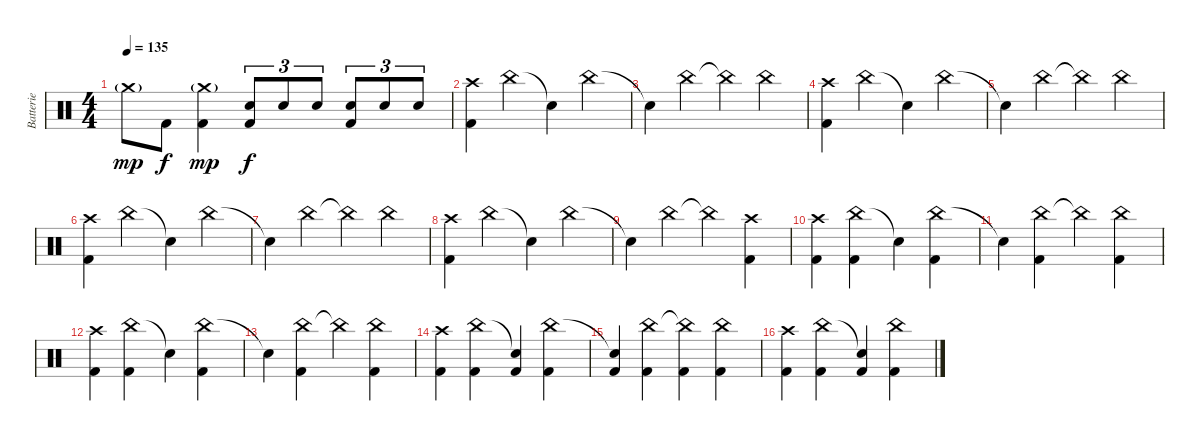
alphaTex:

\track ("Batterie" "Batterie") {instrument percussion}
\staff {score}
\articulation defaults
\ts (4 4)
\tempo 135
\clef neutral
\ks c "Crash medium (hit)"{g}.8{dy mp} "Kick (hit) 2".8{dy f}
("Crash medium (hit)"{g} "Kick (hit) 2").4{dy mp} ("Electric Snare (hit)" "Kick (hit) 2").8{tu (3 2) dy f} "Electric Snare (hit)".8{tu (3 2)} "Electric Snare (hit)".8{tu (3 2)} ("Electric Snare (hit)" "Kick (hit) 2").8{tu (3 2)} "Electric Snare (hit)".8{tu (3 2)} "Electric Snare (hit)".8{tu (3 2)} |
("Crash high (hit)" "Kick (hit) 2").4 "China (hit)".4 "Snare (hit)"{t}.4 "China (hit)".4 |
"Snare (hit)"{t}.4 "China (hit)".4 "China (hit)"{t}.4 "China (hit)".4 |
("Crash high (hit)" "Kick (hit) 2").4 "China (hit)".4 "Snare (hit)"{t}.4 "China (hit)".4 |
"Snare (hit)"{t}.4 "China (hit)".4 "China (hit)"{t}.4 "China (hit)".4 |
("Crash high (hit)" "Kick (hit) 2").4 "China (hit)".4 "Snare (hit)"{t}.4 "China (hit)".4 |
"Snare (hit)"{t}.4 "China (hit)".4 "China (hit)"{t}.4 "China (hit)".4 |
("Crash high (hit)" "Kick (hit) 2").4 "China (hit)".4 "Snare (hit)"{t}.4 "China (hit)".4 |
"Snare (hit)"{t}.4 "China (hit)".4 "China (hit)"{t}.4 ("Crash high (hit)" "Kick (hit) 2").4 |
("Crash high (hit)" "Kick (hit) 2").4 ("China (hit)" "Kick (hit) 2").4 "Snare (hit)"{t}.4 ("China (hit)" "Kick (hit) 2").4 |
"Snare (hit)"{t}.4 ("China (hit)" "Kick (hit) 2").4 "China (hit)"{t}.4 ("China (hit)" "Kick (hit) 2").4 |
("Crash high (hit)" "Kick (hit) 2").4 ("China (hit)" "Kick (hit) 2").4 "Snare (hit)"{t}.4 ("China (hit)" "Kick (hit) 2").4 |
"Snare (hit)"{t}.4 ("China (hit)" "Kick (hit) 2").4 "China (hit)"{t}.4 ("China (hit)" "Kick (hit) 2").4 |
("Crash high (hit)" "Kick (hit) 2").4 ("China (hit)" "Kick (hit) 2").4 ("Snare (hit)"{t} "Kick (hit) 2").4 ("China (hit)" "Kick (hit) 2").4 |
("Snare (hit)"{t} "Kick (hit) 2").4 ("China (hit)" "Kick (hit) 2").4 ("China (hit)"{t} "Kick (hit) 2").4 ("China (hit)" "Kick (hit) 2").4 |
("Crash high (hit)" "Kick (hit) 2").4 ("China (hit)" "Kick (hit) 2").4 ("Snare (hit)"{t} "Kick (hit) 2").4 ("China (hit)" "Kick (hit) 2").4
